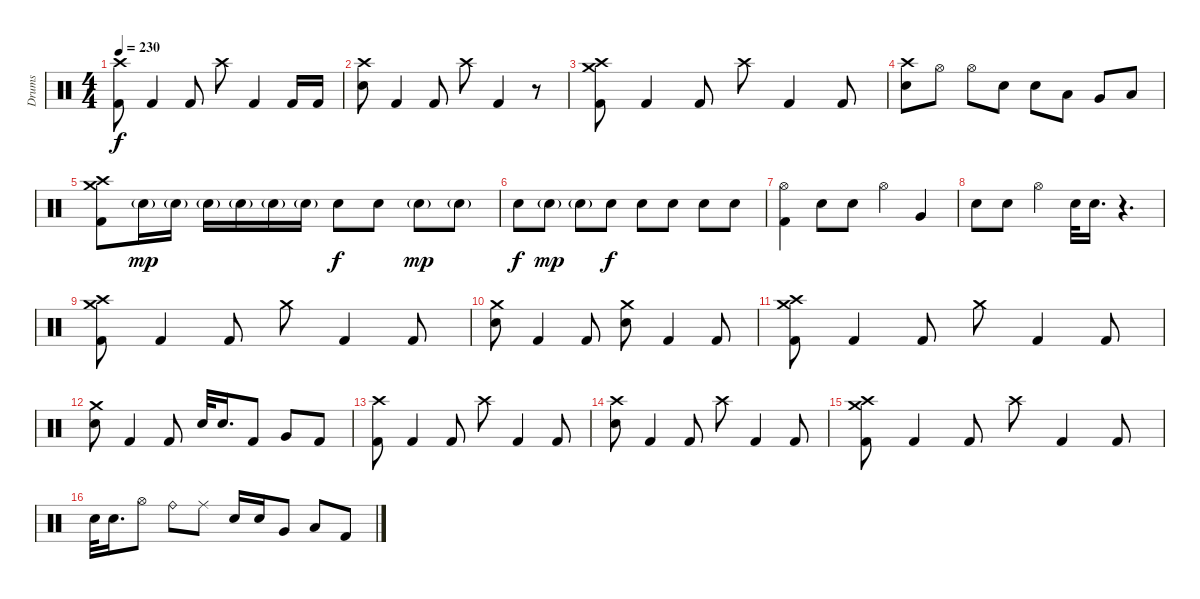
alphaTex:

\track ("Drums" "Drums") {instrument percussion}
\staff {score}
\articulation defaults
\ts (4 4)
\tempo 230
\clef neutral
\ks c
("Crash high (hit)" "Kick (hit) 2").8{dy f} "Kick (hit) 2".4 "Kick (hit) 2".8 "Crash high (hit)".8 "Kick (hit) 2".4 "Kick (hit) 2".16 "Kick (hit) 2".16 |
("Crash high (hit)" "Electric Snare (hit)").8 "Kick (hit) 2".4 "Kick (hit) 2".8 "Crash high (hit)".8 "Kick (hit) 2".4 r.8 |
("Crash medium (hit)" "Crash high (hit)" "Kick (hit) 2").8 "Kick (hit) 2".4 "Kick (hit) 2".8 "Crash high (hit)".8 "Kick (hit) 2".4 "Kick (hit) 2".8 |
("Crash high (hit)" "Electric Snare (hit)").8 "Hi-Hat (open)".8 "Hi-Hat (open)".8 "Electric Snare (hit)".8 "Electric Snare (hit)".8 "Low Tom (hit)".8 "Very Low Tom (hit)".8 "Low Floor Tom (hit)".8 |
("Crash medium (hit)" "Crash high (hit)" "Kick (hit) 2").8 "Electric Snare (hit)"{g}.16{dy mp} "Electric Snare (hit)"{g}.16 "Electric Snare (hit)"{g}.16 "Electric Snare (hit)"{g}.16 "Electric Snare (hit)"{g}.16 "Electric Snare (hit)"{g}.16 "Electric Snare (hit)".8{dy f} "Electric Snare (hit)".8 "Electric Snare (hit)"{g}.8{dy mp} "Electric Snare (hit)"{g}.8 |
"Electric Snare (hit)".8{dy f} "Electric Snare (hit)"{g}.8{dy mp} "Electric Snare (hit)"{g}.8 "Electric Snare (hit)".8{dy f} "Electric Snare (hit)".8 "Electric Snare (hit)".8 "Electric Snare (hit)".8 "Electric Snare (hit)".8 |
("Hi-Hat (open)" "Kick (hit) 2").4 "Electric Snare (hit)".8 "Electric Snare (hit)".8 "Hi-Hat (open)".4 "Very Low Tom (hit)".4 |
"Electric Snare (hit)".8 "Electric Snare (hit)".8 "Hi-Hat (open)".4 "Electric Snare (hit)".32 "Electric Snare (hit)".16{d} r.4{d} |
("Crash medium (hit)" "Crash high (hit)" "Kick (hit) 2").8 "Kick (hit) 2".4 "Kick (hit) 2".8 "Crash medium (hit)".8 "Kick (hit) 2".4 "Kick (hit) 2".8 |
("Crash medium (hit)" "Electric Snare (hit)").8 "Kick (hit) 2".4 "Kick (hit) 2".8 ("Crash medium (hit)" "Electric Snare (hit)").8 "Kick (hit) 2".4 "Kick (hit) 2".8 |
("Crash medium (hit)" "Crash high (hit)" "Kick (hit) 2").8 "Kick (hit) 2".4 "Kick (hit) 2".8 "Crash medium (hit)".8 "Kick (hit) 2".4 "Kick (hit) 2".8 |
("Crash medium (hit)" "Electric Snare (hit)").8 "Kick (hit) 2".4 "Kick (hit) 2".8 "Electric Snare (hit)".32 "Electric Snare (hit)".16{d} "Kick (hit) 2".8 "Very Low Tom (hit)".8 "Kick (hit) 2".8 |
("Crash high (hit)" "Kick (hit) 2").8 "Kick (hit) 2".4 "Kick (hit) 2".8 "Crash high (hit)".8 "Kick (hit) 2".4 "Kick (hit) 2".8 |
("Crash high (hit)" "Electric Snare (hit)").8 "Kick (hit) 2".4 "Kick (hit) 2".8 "Crash high (hit)".8 "Kick (hit) 2".4 "Kick (hit) 2".8 |
("Crash medium (hit)" "Crash high (hit)" "Kick (hit) 2").8 "Kick (hit) 2".4 "Kick (hit) 2".8 "Crash high (hit)".8 "Kick (hit) 2".4 "Kick (hit) 2".8 |
"Electric Snare (hit)".32 "Electric Snare (hit)".16{d} "Hi-Hat (open)".8 "Ride (bell)".8 "Ride (middle)".8 "Electric Snare (hit)".16 "Electric Snare (hit)".16 "Very Low Tom (hit)".8 "Low Floor Tom (hit)".8 "Kick (hit) 2".8
